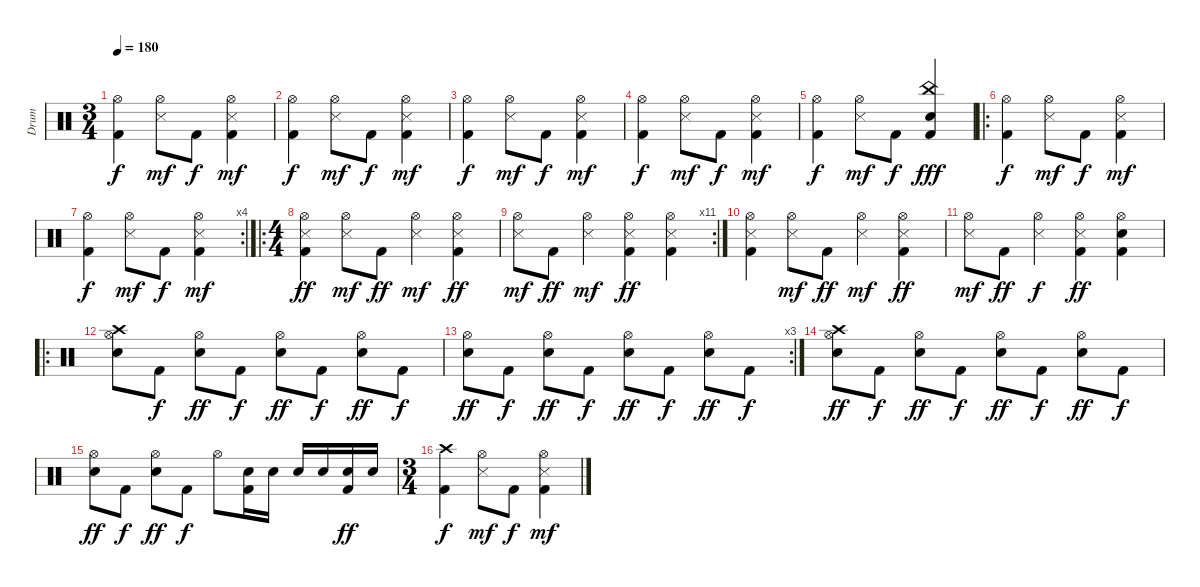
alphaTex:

\track ("Drum" "Drum") {instrument percussion}
\staff {score}
\articulation defaults
\ts (3 4)
\tempo 180
\clef neutral
\ks c
("Hi-Hat (open)" "Kick (hit) 2").4{dy f} ("Hi-Hat (open)" "Snare (side stick) 3").8{dy mf} "Kick (hit) 2".8{dy f} ("Hi-Hat (open)" "Snare (side stick) 3" "Kick (hit) 2").4{dy mf} |
("Hi-Hat (open)" "Kick (hit) 2").4{dy f} ("Hi-Hat (open)" "Snare (side stick) 3").8{dy mf} "Kick (hit) 2".8{dy f} ("Hi-Hat (open)" "Snare (side stick) 3" "Kick (hit) 2").4{dy mf} |
("Hi-Hat (open)" "Kick (hit) 2").4{dy f} ("Hi-Hat (open)" "Snare (side stick) 3").8{dy mf} "Kick (hit) 2".8{dy f} ("Hi-Hat (open)" "Snare (side stick) 3" "Kick (hit) 2").4{dy mf} |
("Hi-Hat (open)" "Kick (hit) 2").4{dy f} ("Hi-Hat (open)" "Snare (side stick) 3").8{dy mf} "Kick (hit) 2".8{dy f} ("Hi-Hat (open)" "Snare (side stick) 3" "Kick (hit) 2").4{dy mf} |
("Hi-Hat (open)" "Kick (hit) 2").4{dy f} ("Hi-Hat (open)" "Snare (side stick) 3").8{dy mf} "Kick (hit) 2".8{dy f} ("China (hit)" "Electric Snare (hit)" "Kick (hit) 2").4{dy fff} |
\ro
("Hi-Hat (open)" "Kick (hit) 2").4{dy f} ("Hi-Hat (open)" "Snare (side stick) 3").8{dy mf} "Kick (hit) 2".8{dy f} ("Hi-Hat (open)" "Snare (side stick) 3" "Kick (hit) 2").4{dy mf} |
\rc 4
("Hi-Hat (open)" "Kick (hit) 2").4{dy f} ("Hi-Hat (open)" "Snare (side stick) 3").8{dy mf} "Kick (hit) 2".8{dy f} ("Hi-Hat (open)" "Snare (side stick) 3" "Kick (hit) 2").4{dy mf} |
\ro
\ts (4 4)
("Hi-Hat (open)" "Snare (side stick) 3" "Kick (hit) 2").4{dy ff} ("Hi-Hat (open)" "Snare (side stick) 3").8{dy mf} "Kick (hit) 2".8{dy ff} ("Hi-Hat (open)" "Snare (side stick) 3").4{dy mf} ("Hi-Hat (open)" "Snare (side stick) 3" "Kick (hit) 2").4{dy ff} |
\rc 11
("Hi-Hat (open)" "Snare (side stick) 3").8{dy mf} "Kick (hit) 2".8{dy ff} ("Hi-Hat (open)" "Snare (side stick) 3").4{dy mf} ("Hi-Hat (open)" "Snare (side stick) 3" "Kick (hit) 2").4{dy ff} ("Hi-Hat (open)" "Snare (side stick) 3" "Kick (hit) 2").4 |
("Hi-Hat (open)" "Snare (side stick) 3" "Kick (hit) 2").4 ("Hi-Hat (open)" "Snare (side stick) 3").8{dy mf} "Kick (hit) 2".8{dy ff} ("Hi-Hat (open)" "Snare (side stick) 3").4{dy mf} ("Hi-Hat (open)" "Snare (side stick) 3" "Kick (hit) 2").4{dy ff} |
("Hi-Hat (open)" "Snare (side stick) 3").8{dy mf} "Kick (hit) 2".8{dy ff} ("Hi-Hat (open)" "Snare (side stick) 3").4{dy f} ("Hi-Hat (open)" "Snare (side stick) 3" "Kick (hit) 2").4{dy ff} ("Hi-Hat (open)" "Electric Snare (hit)" "Kick (hit) 2").4 |
\ro
("Crash high (hit)" "Hi-Hat (open)" "Electric Snare (hit)").8 "Kick (hit) 2".8{dy f} ("Hi-Hat (open)" "Electric Snare (hit)").8{dy ff} "Kick (hit) 2".8{dy f} ("Hi-Hat (open)" "Electric Snare (hit)").8{dy ff} "Kick (hit) 2".8{dy f} ("Hi-Hat (open)" "Electric Snare (hit)").8{dy ff} "Kick (hit) 2".8{dy f} |
\rc 3
("Hi-Hat (open)" "Electric Snare (hit)").8{dy ff} "Kick (hit) 2".8{dy f} ("Hi-Hat (open)" "Electric Snare (hit)").8{dy ff} "Kick (hit) 2".8{dy f} ("Hi-Hat (open)" "Electric Snare (hit)").8{dy ff} "Kick (hit) 2".8{dy f} ("Hi-Hat (open)" "Electric Snare (hit)").8{dy ff} "Kick (hit) 2".8{dy f} |
("Crash high (hit)" "Hi-Hat (open)" "Electric Snare (hit)").8{dy ff} "Kick (hit) 2".8{dy f} ("Hi-Hat (open)" "Electric Snare (hit)").8{dy ff} "Kick (hit) 2".8{dy f} ("Hi-Hat (open)" "Electric Snare (hit)").8{dy ff} "Kick (hit) 2".8{dy f} ("Hi-Hat (open)" "Electric Snare (hit)").8{dy ff} "Kick (hit) 2".8{dy f} |
("Hi-Hat (open)" "Electric Snare (hit)").8{dy ff} "Kick (hit) 2".8{dy f} ("Hi-Hat (open)" "Electric Snare (hit)").8{dy ff} "Kick (hit) 2".8{dy f} "Hi-Hat (open)".8 ("Electric Snare (hit)" "Kick (hit) 2").16 "Electric Snare (hit)".16 "Electric Snare (hit)".16 "Electric Snare (hit)".16 ("Electric Snare (hit)" "Kick (hit) 2").16{dy ff} "Electric Snare (hit)".16 |
\ts (3 4)
("Crash high (hit)" "Kick (hit) 2").4{dy f} ("Hi-Hat (open)" "Snare (side stick) 3").8{dy mf} "Kick (hit) 2".8{dy f} ("Hi-Hat (open)" "Snare (side stick) 3" "Kick (hit) 2").4{dy mf}
